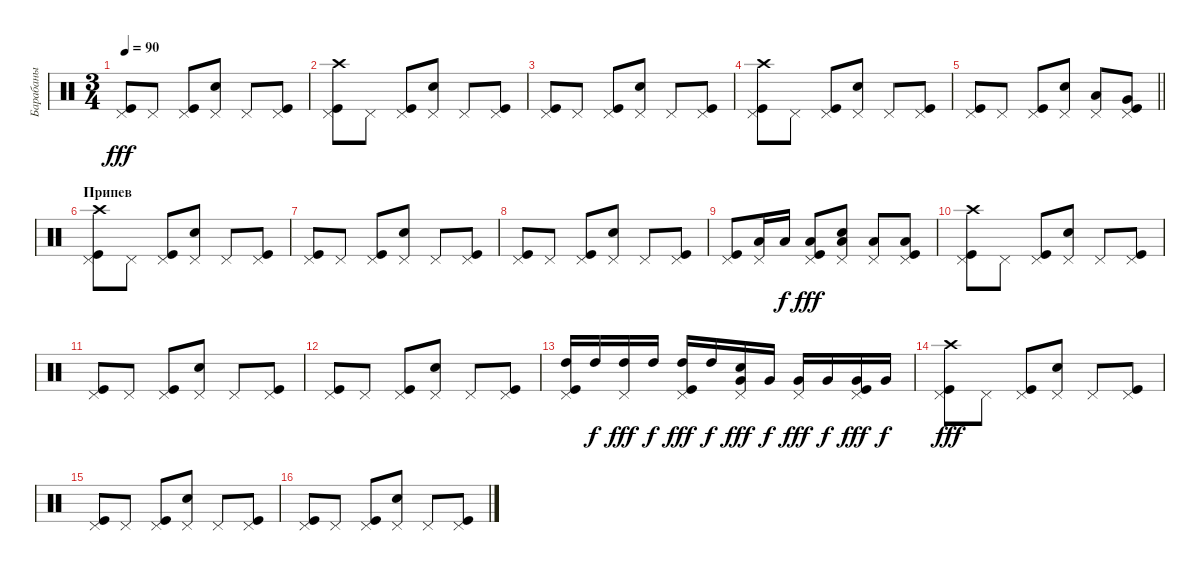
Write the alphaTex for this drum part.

\track ("Барабаны" "Барабаны") {instrument percussion}
\staff {score}
\articulation defaults
\ts (3 4)
\tempo 90
\clef neutral
\ks c
("Kick (hit)" "Pedal Hi-Hat (hit)").8{dy fff} "Pedal Hi-Hat (hit)".8 ("Kick (hit)" "Pedal Hi-Hat (hit)").8 ("Snare (hit) 2" "Pedal Hi-Hat (hit)").8 "Pedal Hi-Hat (hit)".8 ("Kick (hit)" "Pedal Hi-Hat (hit)").8 |
("Kick (hit)" "Pedal Hi-Hat (hit)" "Crash high (hit)").8 "Pedal Hi-Hat (hit)".8 ("Kick (hit)" "Pedal Hi-Hat (hit)").8 ("Snare (hit) 2" "Pedal Hi-Hat (hit)").8 "Pedal Hi-Hat (hit)".8 ("Kick (hit)" "Pedal Hi-Hat (hit)").8 |
("Kick (hit)" "Pedal Hi-Hat (hit)").8 "Pedal Hi-Hat (hit)".8 ("Kick (hit)" "Pedal Hi-Hat (hit)").8 ("Snare (hit) 2" "Pedal Hi-Hat (hit)").8 "Pedal Hi-Hat (hit)".8 ("Kick (hit)" "Pedal Hi-Hat (hit)").8 |
("Kick (hit)" "Pedal Hi-Hat (hit)" "Crash high (hit)").8 "Pedal Hi-Hat (hit)".8 ("Kick (hit)" "Pedal Hi-Hat (hit)").8 ("Snare (hit) 2" "Pedal Hi-Hat (hit)").8 "Pedal Hi-Hat (hit)".8 ("Kick (hit)" "Pedal Hi-Hat (hit)").8 |
\barLineRight lightlight
("Kick (hit)" "Pedal Hi-Hat (hit)").8 "Pedal Hi-Hat (hit)".8 ("Kick (hit)" "Pedal Hi-Hat (hit)").8 ("Snare (hit) 2" "Pedal Hi-Hat (hit)").8 ("Pedal Hi-Hat (hit)" "Low Floor Tom (hit)").8 ("Kick (hit)" "Pedal Hi-Hat (hit)" "Very Low Tom (hit)").8 |
\section ("" "Припев")
("Kick (hit)" "Pedal Hi-Hat (hit)" "Crash high (hit)").8 "Pedal Hi-Hat (hit)".8 ("Kick (hit)" "Pedal Hi-Hat (hit)").8 ("Snare (hit) 2" "Pedal Hi-Hat (hit)").8 "Pedal Hi-Hat (hit)".8 ("Kick (hit)" "Pedal Hi-Hat (hit)").8 |
("Kick (hit)" "Pedal Hi-Hat (hit)").8 "Pedal Hi-Hat (hit)".8 ("Kick (hit)" "Pedal Hi-Hat (hit)").8 ("Snare (hit) 2" "Pedal Hi-Hat (hit)").8 "Pedal Hi-Hat (hit)".8 ("Kick (hit)" "Pedal Hi-Hat (hit)").8 |
("Kick (hit)" "Pedal Hi-Hat (hit)").8 "Pedal Hi-Hat (hit)".8 ("Kick (hit)" "Pedal Hi-Hat (hit)").8 ("Snare (hit) 2" "Pedal Hi-Hat (hit)").8 "Pedal Hi-Hat (hit)".8 ("Kick (hit)" "Pedal Hi-Hat (hit)").8 |
("Kick (hit)" "Pedal Hi-Hat (hit)").8 ("Pedal Hi-Hat (hit)" "Low Tom (hit)").16 "Low Tom (hit)".16{dy f} ("Kick (hit)" "Pedal Hi-Hat (hit)" "Low Tom (hit)").8{dy fff} ("Snare (hit) 2" "Pedal Hi-Hat (hit)" "Low Floor Tom (hit)").8 ("Pedal Hi-Hat (hit)" "Low Floor Tom (hit)").8 ("Kick (hit)" "Pedal Hi-Hat (hit)" "Low Floor Tom (hit)").8 |
("Kick (hit)" "Pedal Hi-Hat (hit)" "Crash high (hit)").8 "Pedal Hi-Hat (hit)".8 ("Kick (hit)" "Pedal Hi-Hat (hit)").8 ("Snare (hit) 2" "Pedal Hi-Hat (hit)").8 "Pedal Hi-Hat (hit)".8 ("Kick (hit)" "Pedal Hi-Hat (hit)").8 |
("Kick (hit)" "Pedal Hi-Hat (hit)").8 "Pedal Hi-Hat (hit)".8 ("Kick (hit)" "Pedal Hi-Hat (hit)").8 ("Snare (hit) 2" "Pedal Hi-Hat (hit)").8 "Pedal Hi-Hat (hit)".8 ("Kick (hit)" "Pedal Hi-Hat (hit)").8 |
("Kick (hit)" "Pedal Hi-Hat (hit)").8 "Pedal Hi-Hat (hit)".8 ("Kick (hit)" "Pedal Hi-Hat (hit)").8 ("Snare (hit) 2" "Pedal Hi-Hat (hit)").8 "Pedal Hi-Hat (hit)".8 ("Kick (hit)" "Pedal Hi-Hat (hit)").8 |
("Kick (hit)" "Pedal Hi-Hat (hit)" "High Tom (hit)").16 "High Tom (hit)".16{dy f} ("Pedal Hi-Hat (hit)" "High Tom (hit)").16{dy fff} "High Tom (hit)".16{dy f} ("Kick (hit)" "Pedal Hi-Hat (hit)" "High Tom (hit)").16{dy fff} "High Tom (hit)".16{dy f} ("Snare (hit) 2" "Pedal Hi-Hat (hit)" "Very Low Tom (hit)").16{dy fff} "Very Low Tom (hit)".16{dy f} ("Pedal Hi-Hat (hit)" "Very Low Tom (hit)").16{dy fff} "Very Low Tom (hit)".16{dy f} ("Kick (hit)" "Pedal Hi-Hat (hit)" "Very Low Tom (hit)").16{dy fff} "Very Low Tom (hit)".16{dy f} |
("Kick (hit)" "Pedal Hi-Hat (hit)" "Crash high (hit)").8{dy fff} "Pedal Hi-Hat (hit)".8 ("Kick (hit)" "Pedal Hi-Hat (hit)").8 ("Snare (hit) 2" "Pedal Hi-Hat (hit)").8 "Pedal Hi-Hat (hit)".8 ("Kick (hit)" "Pedal Hi-Hat (hit)").8 |
("Kick (hit)" "Pedal Hi-Hat (hit)").8 "Pedal Hi-Hat (hit)".8 ("Kick (hit)" "Pedal Hi-Hat (hit)").8 ("Snare (hit) 2" "Pedal Hi-Hat (hit)").8 "Pedal Hi-Hat (hit)".8 ("Kick (hit)" "Pedal Hi-Hat (hit)").8 |
("Kick (hit)" "Pedal Hi-Hat (hit)").8 "Pedal Hi-Hat (hit)".8 ("Kick (hit)" "Pedal Hi-Hat (hit)").8 ("Snare (hit) 2" "Pedal Hi-Hat (hit)").8 "Pedal Hi-Hat (hit)".8 ("Kick (hit)" "Pedal Hi-Hat (hit)").8
